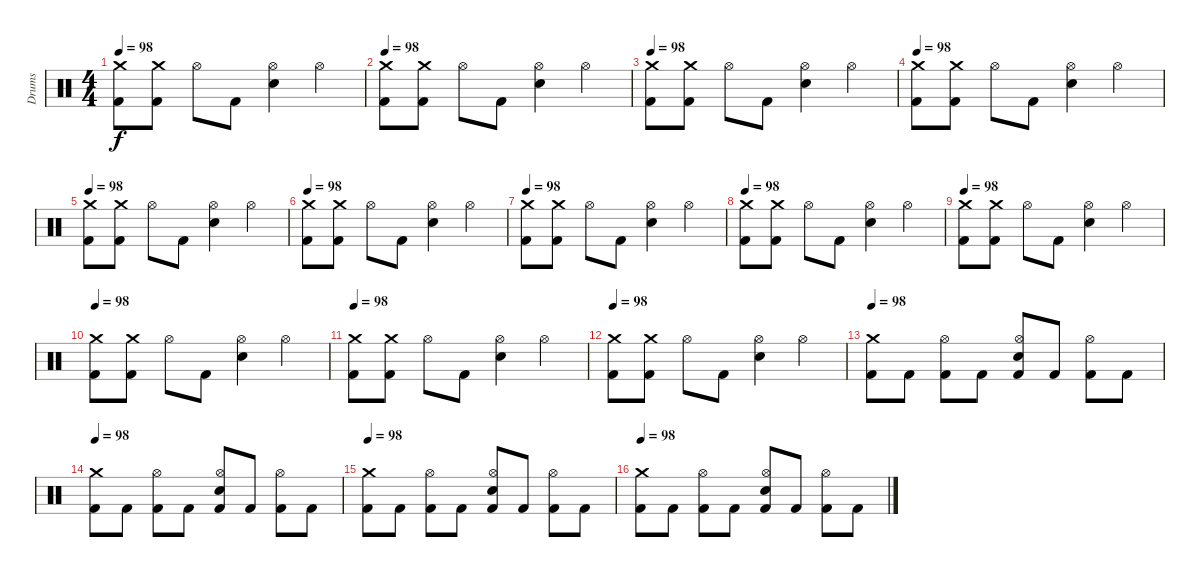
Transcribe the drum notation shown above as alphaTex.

\track ("Drums" "Drums") {instrument percussion}
\staff {score}
\articulation defaults
\ts (4 4)
\tempo 98
\clef neutral
\ks c
("Kick (hit) 2" "Crash medium (hit)").8{dy f} ("Kick (hit) 2" "Crash medium (hit)").8 "Hi-Hat (open)".8 "Kick (hit) 2".8 ("Electric Snare (hit)" "Hi-Hat (open)").4 "Hi-Hat (open)".4 |
\tempo 98
("Kick (hit) 2" "Crash medium (hit)").8 ("Kick (hit) 2" "Crash medium (hit)").8 "Hi-Hat (open)".8 "Kick (hit) 2".8 ("Electric Snare (hit)" "Hi-Hat (open)").4 "Hi-Hat (open)".4 |
\tempo 98
("Kick (hit) 2" "Crash medium (hit)").8 ("Kick (hit) 2" "Crash medium (hit)").8 "Hi-Hat (open)".8 "Kick (hit) 2".8 ("Electric Snare (hit)" "Hi-Hat (open)").4 "Hi-Hat (open)".4 |
\tempo 98
("Kick (hit) 2" "Crash medium (hit)").8 ("Kick (hit) 2" "Crash medium (hit)").8 "Hi-Hat (open)".8 "Kick (hit) 2".8 ("Electric Snare (hit)" "Hi-Hat (open)").4 "Hi-Hat (open)".4 |
\tempo 98
("Kick (hit) 2" "Crash medium (hit)").8 ("Kick (hit) 2" "Crash medium (hit)").8 "Hi-Hat (open)".8 "Kick (hit) 2".8 ("Electric Snare (hit)" "Hi-Hat (open)").4 "Hi-Hat (open)".4 |
\tempo 98
("Kick (hit) 2" "Crash medium (hit)").8 ("Kick (hit) 2" "Crash medium (hit)").8 "Hi-Hat (open)".8 "Kick (hit) 2".8 ("Electric Snare (hit)" "Hi-Hat (open)").4 "Hi-Hat (open)".4 |
\tempo 98
("Kick (hit) 2" "Crash medium (hit)").8 ("Kick (hit) 2" "Crash medium (hit)").8 "Hi-Hat (open)".8 "Kick (hit) 2".8 ("Electric Snare (hit)" "Hi-Hat (open)").4 "Hi-Hat (open)".4 |
\tempo 98
("Kick (hit) 2" "Crash medium (hit)").8 ("Kick (hit) 2" "Crash medium (hit)").8 "Hi-Hat (open)".8 "Kick (hit) 2".8 ("Electric Snare (hit)" "Hi-Hat (open)").4 "Hi-Hat (open)".4 |
\tempo 98
("Kick (hit) 2" "Crash medium (hit)").8 ("Kick (hit) 2" "Crash medium (hit)").8 "Hi-Hat (open)".8 "Kick (hit) 2".8 ("Electric Snare (hit)" "Hi-Hat (open)").4 "Hi-Hat (open)".4 |
\tempo 98
("Kick (hit) 2" "Crash medium (hit)").8 ("Kick (hit) 2" "Crash medium (hit)").8 "Hi-Hat (open)".8 "Kick (hit) 2".8 ("Electric Snare (hit)" "Hi-Hat (open)").4 "Hi-Hat (open)".4 |
\tempo 98
("Kick (hit) 2" "Crash medium (hit)").8 ("Kick (hit) 2" "Crash medium (hit)").8 "Hi-Hat (open)".8 "Kick (hit) 2".8 ("Electric Snare (hit)" "Hi-Hat (open)").4 "Hi-Hat (open)".4 |
\tempo 98
("Kick (hit) 2" "Crash medium (hit)").8 ("Kick (hit) 2" "Crash medium (hit)").8 "Hi-Hat (open)".8 "Kick (hit) 2".8 ("Electric Snare (hit)" "Hi-Hat (open)").4 "Hi-Hat (open)".4 |
\tempo 98
("Kick (hit) 2" "Crash medium (hit)").8 "Kick (hit) 2".8 ("Kick (hit) 2" "Hi-Hat (open)").8 "Kick (hit) 2".8 ("Kick (hit) 2" "Electric Snare (hit)" "Hi-Hat (open)").8 "Kick (hit) 2".8 ("Kick (hit) 2" "Hi-Hat (open)").8 "Kick (hit) 2".8 |
\tempo 98
("Kick (hit) 2" "Crash medium (hit)").8 "Kick (hit) 2".8 ("Kick (hit) 2" "Hi-Hat (open)").8 "Kick (hit) 2".8 ("Kick (hit) 2" "Electric Snare (hit)" "Hi-Hat (open)").8 "Kick (hit) 2".8 ("Kick (hit) 2" "Hi-Hat (open)").8 "Kick (hit) 2".8 |
\tempo 98
("Kick (hit) 2" "Crash medium (hit)").8 "Kick (hit) 2".8 ("Kick (hit) 2" "Hi-Hat (open)").8 "Kick (hit) 2".8 ("Kick (hit) 2" "Electric Snare (hit)" "Hi-Hat (open)").8 "Kick (hit) 2".8 ("Kick (hit) 2" "Hi-Hat (open)").8 "Kick (hit) 2".8 |
\tempo 98
("Kick (hit) 2" "Crash medium (hit)").8 "Kick (hit) 2".8 ("Kick (hit) 2" "Hi-Hat (open)").8 "Kick (hit) 2".8 ("Kick (hit) 2" "Electric Snare (hit)" "Hi-Hat (open)").8 "Kick (hit) 2".8 ("Kick (hit) 2" "Hi-Hat (open)").8 "Kick (hit) 2".8
